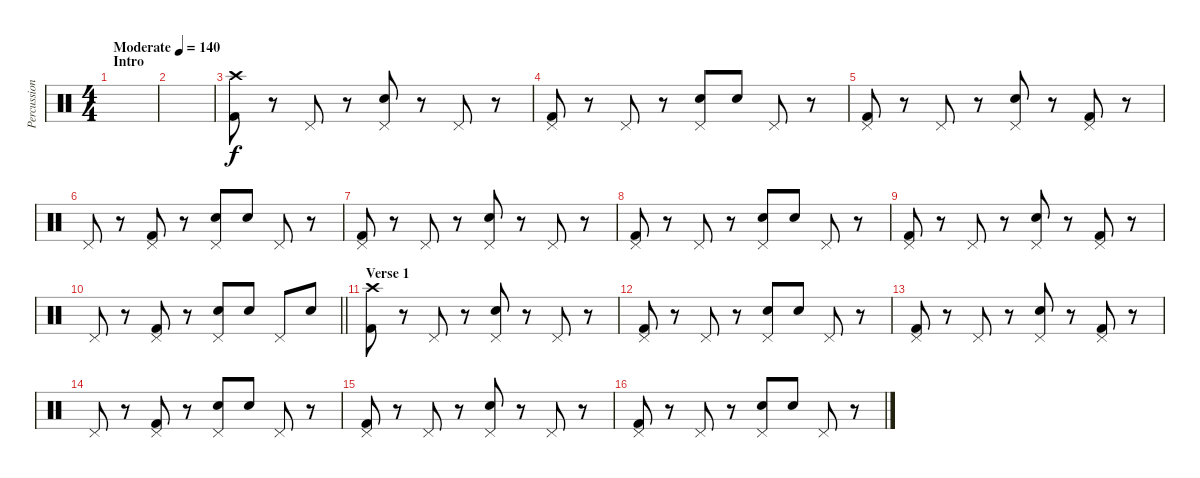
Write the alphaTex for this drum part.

\track ("Percussion" "Percussion") {instrument percussion}
\staff {score}
\articulation defaults
\ts (4 4)
\section ("" "Intro")
\tempo (140 "Moderate")
\clef neutral
\ks c
|
|
("Crash high (hit)" "Kick (hit) 2").8 r.8 "Pedal Hi-Hat (hit)".8 r.8 ("Pedal Hi-Hat (hit)" "Snare (hit) 2").8 r.8 "Pedal Hi-Hat (hit)".8 r.8 |
("Pedal Hi-Hat (hit)" "Kick (hit) 2").8 r.8 "Pedal Hi-Hat (hit)".8 r.8 ("Pedal Hi-Hat (hit)" "Snare (hit) 2").8 "Snare (hit) 2".8 "Pedal Hi-Hat (hit)".8 r.8 |
("Pedal Hi-Hat (hit)" "Kick (hit) 2").8 r.8 "Pedal Hi-Hat (hit)".8 r.8 ("Pedal Hi-Hat (hit)" "Snare (hit) 2").8 r.8 ("Pedal Hi-Hat (hit)" "Kick (hit) 2").8 r.8 |
"Pedal Hi-Hat (hit)".8 r.8 ("Pedal Hi-Hat (hit)" "Kick (hit) 2").8 r.8 ("Pedal Hi-Hat (hit)" "Snare (hit) 2").8 "Snare (hit) 2".8 "Pedal Hi-Hat (hit)".8 r.8 |
("Pedal Hi-Hat (hit)" "Kick (hit) 2").8 r.8 "Pedal Hi-Hat (hit)".8 r.8 ("Pedal Hi-Hat (hit)" "Snare (hit) 2").8 r.8 "Pedal Hi-Hat (hit)".8 r.8 |
("Pedal Hi-Hat (hit)" "Kick (hit) 2").8 r.8 "Pedal Hi-Hat (hit)".8 r.8 ("Pedal Hi-Hat (hit)" "Snare (hit) 2").8 "Snare (hit) 2".8 "Pedal Hi-Hat (hit)".8 r.8 |
("Pedal Hi-Hat (hit)" "Kick (hit) 2").8 r.8 "Pedal Hi-Hat (hit)".8 r.8 ("Pedal Hi-Hat (hit)" "Snare (hit) 2").8 r.8 ("Pedal Hi-Hat (hit)" "Kick (hit) 2").8 r.8 |
\barLineRight lightlight "Pedal Hi-Hat (hit)".8
r.8 ("Pedal Hi-Hat (hit)" "Kick (hit) 2").8 r.8 ("Pedal Hi-Hat (hit)" "Snare (hit) 2").8 "Snare (hit) 2".8 "Pedal Hi-Hat (hit)".8 "Snare (hit) 2".8 |
\section ("" "Verse 1")
("Crash high (hit)" "Kick (hit) 2").8 r.8 "Pedal Hi-Hat (hit)".8 r.8 ("Pedal Hi-Hat (hit)" "Snare (hit) 2").8 r.8 "Pedal Hi-Hat (hit)".8 r.8 |
("Pedal Hi-Hat (hit)" "Kick (hit) 2").8 r.8 "Pedal Hi-Hat (hit)".8 r.8 ("Pedal Hi-Hat (hit)" "Snare (hit) 2").8 "Snare (hit) 2".8 "Pedal Hi-Hat (hit)".8 r.8 |
("Pedal Hi-Hat (hit)" "Kick (hit) 2").8 r.8 "Pedal Hi-Hat (hit)".8 r.8 ("Pedal Hi-Hat (hit)" "Snare (hit) 2").8 r.8 ("Pedal Hi-Hat (hit)" "Kick (hit) 2").8 r.8 |
"Pedal Hi-Hat (hit)".8 r.8 ("Pedal Hi-Hat (hit)" "Kick (hit) 2").8 r.8 ("Pedal Hi-Hat (hit)" "Snare (hit) 2").8 "Snare (hit) 2".8 "Pedal Hi-Hat (hit)".8 r.8 |
("Pedal Hi-Hat (hit)" "Kick (hit) 2").8 r.8 "Pedal Hi-Hat (hit)".8 r.8 ("Pedal Hi-Hat (hit)" "Snare (hit) 2").8 r.8 "Pedal Hi-Hat (hit)".8 r.8 |
("Pedal Hi-Hat (hit)" "Kick (hit) 2").8 r.8 "Pedal Hi-Hat (hit)".8 r.8 ("Pedal Hi-Hat (hit)" "Snare (hit) 2").8 "Snare (hit) 2".8 "Pedal Hi-Hat (hit)".8 r.8
